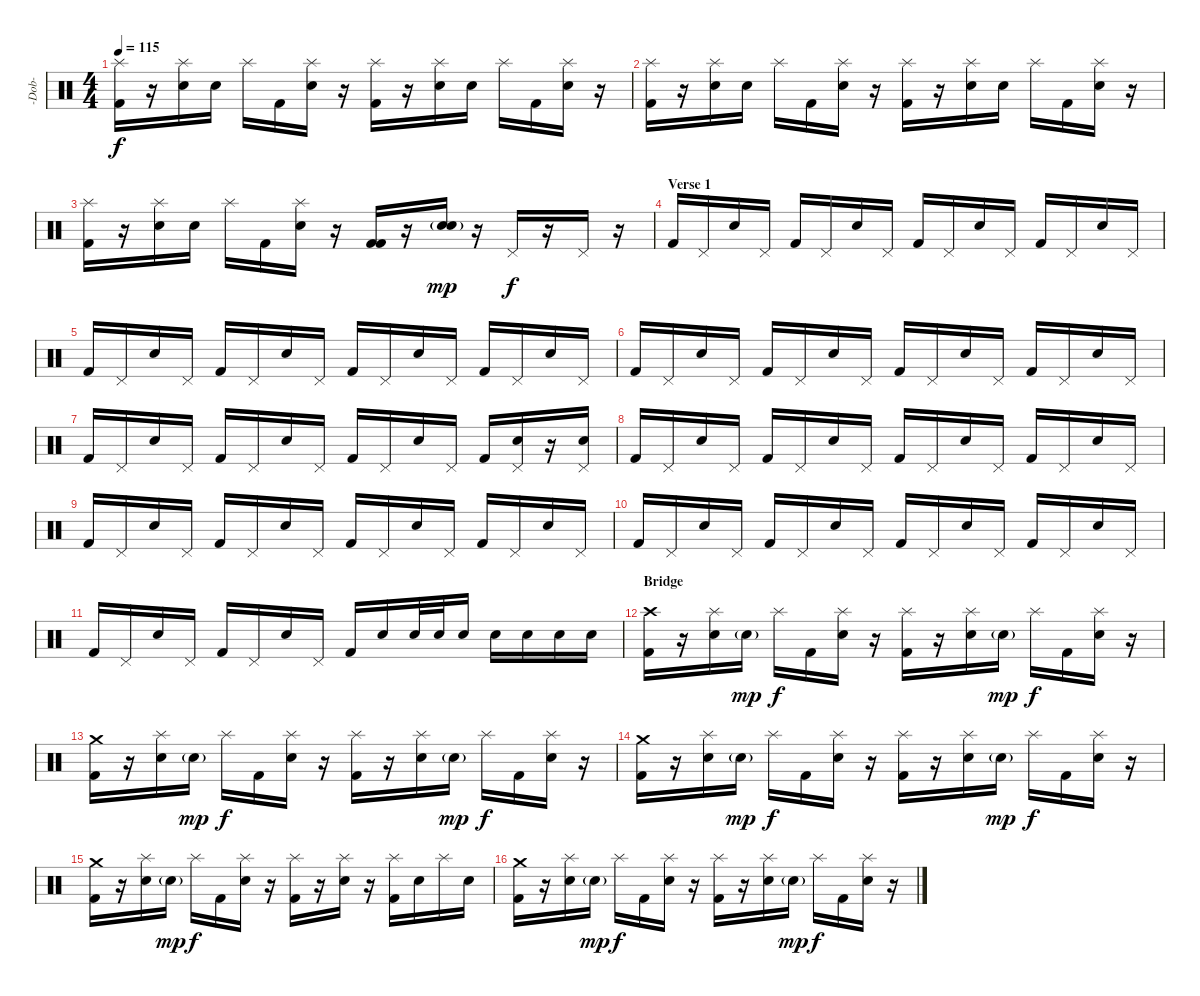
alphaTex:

\track ("-Dob-" "-Dob-") {instrument percussion}
\staff {score}
\articulation defaults
\ts (4 4)
\tempo 115
\clef neutral
\ks c
("Splash (hit)" "Kick (hit) 2").16{dy f} r.16 ("Splash (hit)" "Snare (hit) 2").16 "Snare (hit) 2".16 "Splash (hit)".16 "Kick (hit) 2".16 ("Splash (hit)" "Snare (hit) 2").16 r.16 ("Splash (hit)" "Kick (hit) 2").16 r.16 ("Splash (hit)" "Snare (hit) 2").16 "Snare (hit) 2".16 "Splash (hit)".16 "Kick (hit) 2".16 ("Splash (hit)" "Snare (hit) 2").16 r.16 |
("Splash (hit)" "Kick (hit) 2").16 r.16 ("Splash (hit)" "Snare (hit) 2").16 "Snare (hit) 2".16 "Splash (hit)".16 "Kick (hit) 2".16 ("Splash (hit)" "Snare (hit) 2").16 r.16 ("Splash (hit)" "Kick (hit) 2").16 r.16 ("Splash (hit)" "Snare (hit) 2").16 "Snare (hit) 2".16 "Splash (hit)".16 "Kick (hit) 2".16 ("Splash (hit)" "Snare (hit) 2").16 r.16 |
("Splash (hit)" "Kick (hit) 2").16 r.16 ("Splash (hit)" "Snare (hit) 2").16 "Snare (hit) 2".16 "Splash (hit)".16 "Kick (hit) 2".16 ("Splash (hit)" "Snare (hit) 2").16 r.16 ("Kick (hit) 2" "Kick (hit) 2").16 r.16 ("Snare (hit) 2" "Snare (hit) 2"{g}).16{dy mp} r.16 "Pedal Hi-Hat (hit)".16{dy f} r.16 "Pedal Hi-Hat (hit)".16 r.16 |
\section ("" "Verse 1")
"Kick (hit) 2".16 "Pedal Hi-Hat (hit)".16 "Snare (hit) 2".16 "Pedal Hi-Hat (hit)".16 "Kick (hit) 2".16 "Pedal Hi-Hat (hit)".16 "Snare (hit) 2".16 "Pedal Hi-Hat (hit)".16 "Kick (hit) 2".16 "Pedal Hi-Hat (hit)".16 "Snare (hit) 2".16 "Pedal Hi-Hat (hit)".16 "Kick (hit) 2".16 "Pedal Hi-Hat (hit)".16 "Snare (hit) 2".16 "Pedal Hi-Hat (hit)".16 |
"Kick (hit) 2".16 "Pedal Hi-Hat (hit)".16 "Snare (hit) 2".16 "Pedal Hi-Hat (hit)".16 "Kick (hit) 2".16 "Pedal Hi-Hat (hit)".16 "Snare (hit) 2".16 "Pedal Hi-Hat (hit)".16 "Kick (hit) 2".16 "Pedal Hi-Hat (hit)".16 "Snare (hit) 2".16 "Pedal Hi-Hat (hit)".16 "Kick (hit) 2".16 "Pedal Hi-Hat (hit)".16 "Snare (hit) 2".16 "Pedal Hi-Hat (hit)".16 |
"Kick (hit) 2".16 "Pedal Hi-Hat (hit)".16 "Snare (hit) 2".16 "Pedal Hi-Hat (hit)".16 "Kick (hit) 2".16 "Pedal Hi-Hat (hit)".16 "Snare (hit) 2".16 "Pedal Hi-Hat (hit)".16 "Kick (hit) 2".16 "Pedal Hi-Hat (hit)".16 "Snare (hit) 2".16 "Pedal Hi-Hat (hit)".16 "Kick (hit) 2".16 "Pedal Hi-Hat (hit)".16 "Snare (hit) 2".16 "Pedal Hi-Hat (hit)".16 |
"Kick (hit) 2".16 "Pedal Hi-Hat (hit)".16 "Snare (hit) 2".16 "Pedal Hi-Hat (hit)".16 "Kick (hit) 2".16 "Pedal Hi-Hat (hit)".16 "Snare (hit) 2".16 "Pedal Hi-Hat (hit)".16 "Kick (hit) 2".16 "Pedal Hi-Hat (hit)".16 "Snare (hit) 2".16 "Pedal Hi-Hat (hit)".16 "Kick (hit) 2".16 ("Pedal Hi-Hat (hit)" "Snare (hit) 2").16 r.16 ("Pedal Hi-Hat (hit)" "Snare (hit) 2").16 |
"Kick (hit) 2".16 "Pedal Hi-Hat (hit)".16 "Snare (hit) 2".16 "Pedal Hi-Hat (hit)".16 "Kick (hit) 2".16 "Pedal Hi-Hat (hit)".16 "Snare (hit) 2".16 "Pedal Hi-Hat (hit)".16 "Kick (hit) 2".16 "Pedal Hi-Hat (hit)".16 "Snare (hit) 2".16 "Pedal Hi-Hat (hit)".16 "Kick (hit) 2".16 "Pedal Hi-Hat (hit)".16 "Snare (hit) 2".16 "Pedal Hi-Hat (hit)".16 |
"Kick (hit) 2".16 "Pedal Hi-Hat (hit)".16 "Snare (hit) 2".16 "Pedal Hi-Hat (hit)".16 "Kick (hit) 2".16 "Pedal Hi-Hat (hit)".16 "Snare (hit) 2".16 "Pedal Hi-Hat (hit)".16 "Kick (hit) 2".16 "Pedal Hi-Hat (hit)".16 "Snare (hit) 2".16 "Pedal Hi-Hat (hit)".16 "Kick (hit) 2".16 "Pedal Hi-Hat (hit)".16 "Snare (hit) 2".16 "Pedal Hi-Hat (hit)".16 |
"Kick (hit) 2".16 "Pedal Hi-Hat (hit)".16 "Snare (hit) 2".16 "Pedal Hi-Hat (hit)".16 "Kick (hit) 2".16 "Pedal Hi-Hat (hit)".16 "Snare (hit) 2".16 "Pedal Hi-Hat (hit)".16 "Kick (hit) 2".16 "Pedal Hi-Hat (hit)".16 "Snare (hit) 2".16 "Pedal Hi-Hat (hit)".16 "Kick (hit) 2".16 "Pedal Hi-Hat (hit)".16 "Snare (hit) 2".16 "Pedal Hi-Hat (hit)".16 |
"Kick (hit) 2".16 "Pedal Hi-Hat (hit)".16 "Snare (hit) 2".16 "Pedal Hi-Hat (hit)".16 "Kick (hit) 2".16 "Pedal Hi-Hat (hit)".16 "Snare (hit) 2".16 "Pedal Hi-Hat (hit)".16 "Kick (hit) 2".16 "Snare (hit) 2".16 "Snare (hit) 2".32 "Snare (hit) 2".32 "Snare (hit) 2".16 "Snare (hit) 2".16 "Snare (hit) 2".16 "Snare (hit) 2".16 "Snare (hit) 2".16 |
\section ("" "Bridge")
("Crash high (hit)" "Kick (hit) 2").16 r.16 ("Splash (hit)" "Snare (hit) 2").16 "Snare (hit) 2"{g}.16{dy mp} "Splash (hit)".16{dy f} "Kick (hit) 2".16 ("Splash (hit)" "Snare (hit) 2").16 r.16 ("Splash (hit)" "Kick (hit) 2").16 r.16 ("Splash (hit)" "Snare (hit) 2").16 "Snare (hit) 2"{g}.16{dy mp} "Splash (hit)".16{dy f} "Kick (hit) 2".16 ("Splash (hit)" "Snare (hit) 2").16 r.16 |
("Crash medium (hit)" "Kick (hit) 2").16 r.16 ("Splash (hit)" "Snare (hit) 2").16 "Snare (hit) 2"{g}.16{dy mp} "Splash (hit)".16{dy f} "Kick (hit) 2".16 ("Splash (hit)" "Snare (hit) 2").16 r.16 ("Splash (hit)" "Kick (hit) 2").16 r.16 ("Splash (hit)" "Snare (hit) 2").16 "Snare (hit) 2"{g}.16{dy mp} "Splash (hit)".16{dy f} "Kick (hit) 2".16 ("Splash (hit)" "Snare (hit) 2").16 r.16 |
("Crash medium (hit)" "Kick (hit) 2").16 r.16 ("Splash (hit)" "Snare (hit) 2").16 "Snare (hit) 2"{g}.16{dy mp} "Splash (hit)".16{dy f} "Kick (hit) 2".16 ("Splash (hit)" "Snare (hit) 2").16 r.16 ("Splash (hit)" "Kick (hit) 2").16 r.16 ("Splash (hit)" "Snare (hit) 2").16 "Snare (hit) 2"{g}.16{dy mp} "Splash (hit)".16{dy f} "Kick (hit) 2".16 ("Splash (hit)" "Snare (hit) 2").16 r.16 |
("Crash medium (hit)" "Kick (hit) 2").16 r.16 ("Splash (hit)" "Snare (hit) 2").16 "Snare (hit) 2"{g}.16{dy mp} "Splash (hit)".16{dy f} "Kick (hit) 2".16 ("Splash (hit)" "Snare (hit) 2").16 r.16 ("Splash (hit)" "Kick (hit) 2").16 r.16 ("Splash (hit)" "Snare (hit) 2").16 r.16 ("Splash (hit)" "Kick (hit) 2").16 "Snare (hit) 2".16 "Splash (hit)".16 "Snare (hit) 2".16 |
("Crash medium (hit)" "Kick (hit) 2").16 r.16 ("Splash (hit)" "Snare (hit) 2").16 "Snare (hit) 2"{g}.16{dy mp} "Splash (hit)".16{dy f} "Kick (hit) 2".16 ("Splash (hit)" "Snare (hit) 2").16 r.16 ("Splash (hit)" "Kick (hit) 2").16 r.16 ("Splash (hit)" "Snare (hit) 2").16 "Snare (hit) 2"{g}.16{dy mp} "Splash (hit)".16{dy f} "Kick (hit) 2".16 ("Splash (hit)" "Snare (hit) 2").16 r.16
